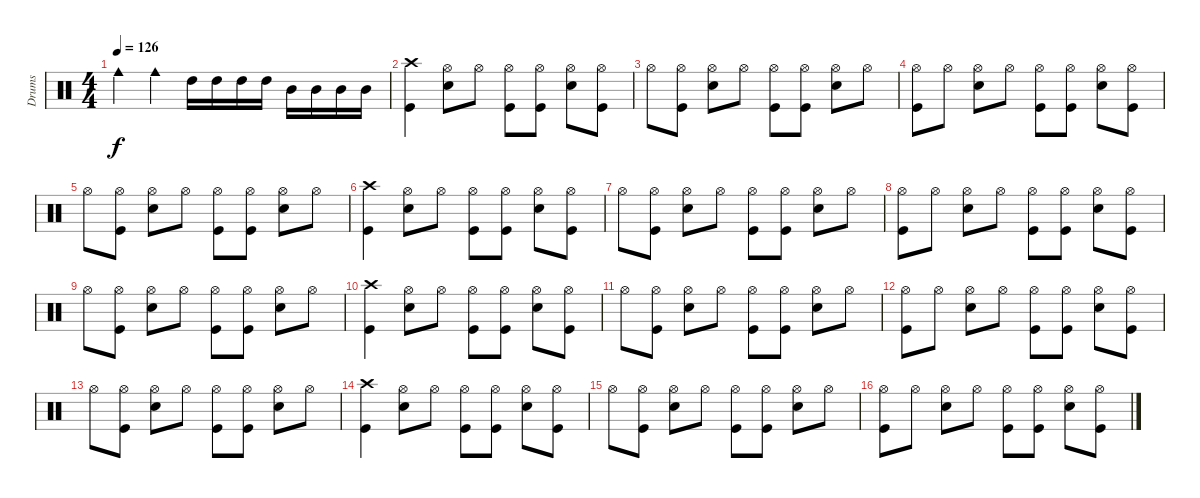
\track ("Drums" "Drums") {instrument percussion}
\staff {score}
\articulation defaults
\ts (4 4)
\tempo 126
\clef neutral
\ks c "Cowbell medium (hit)".4{dy f} "Cowbell medium (hit)".4 "High Tom (hit)".16 "High Tom (hit)".16 "High Tom (hit)".16 "High Tom (hit)".16 "Mid Tom (hit)".16 "Mid Tom (hit)".16 "Mid Tom (hit)".16 "Mid Tom (hit)".16
|
("Crash high (hit)" "Kick (hit)").4 ("Hi-Hat (open)" "Snare (hit) 2").8 "Hi-Hat (open)".8 ("Hi-Hat (open)" "Kick (hit)").8 ("Hi-Hat (open)" "Kick (hit)").8 ("Hi-Hat (open)" "Snare (hit) 2").8 ("Hi-Hat (open)" "Kick (hit)").8 |
"Hi-Hat (open)".8 ("Hi-Hat (open)" "Kick (hit)").8 ("Snare (hit) 2" "Hi-Hat (open)").8 "Hi-Hat (open)".8 ("Hi-Hat (open)" "Kick (hit)").8 ("Hi-Hat (open)" "Kick (hit)").8 ("Hi-Hat (open)" "Snare (hit) 2").8 "Hi-Hat (open)".8 |
("Hi-Hat (open)" "Kick (hit)").8 "Hi-Hat (open)".8 ("Hi-Hat (open)" "Snare (hit) 2").8 "Hi-Hat (open)".8 ("Hi-Hat (open)" "Kick (hit)").8 ("Hi-Hat (open)" "Kick (hit)").8 ("Hi-Hat (open)" "Snare (hit) 2").8 ("Hi-Hat (open)" "Kick (hit)").8 |
"Hi-Hat (open)".8 ("Hi-Hat (open)" "Kick (hit)").8 ("Snare (hit) 2" "Hi-Hat (open)").8 "Hi-Hat (open)".8 ("Hi-Hat (open)" "Kick (hit)").8 ("Hi-Hat (open)" "Kick (hit)").8 ("Hi-Hat (open)" "Snare (hit) 2").8 "Hi-Hat (open)".8 |
("Crash high (hit)" "Kick (hit)").4 ("Hi-Hat (open)" "Snare (hit) 2").8 "Hi-Hat (open)".8 ("Hi-Hat (open)" "Kick (hit)").8 ("Hi-Hat (open)" "Kick (hit)").8 ("Hi-Hat (open)" "Snare (hit) 2").8 ("Hi-Hat (open)" "Kick (hit)").8 |
"Hi-Hat (open)".8 ("Hi-Hat (open)" "Kick (hit)").8 ("Snare (hit) 2" "Hi-Hat (open)").8 "Hi-Hat (open)".8 ("Hi-Hat (open)" "Kick (hit)").8 ("Hi-Hat (open)" "Kick (hit)").8 ("Hi-Hat (open)" "Snare (hit) 2").8 "Hi-Hat (open)".8 |
("Hi-Hat (open)" "Kick (hit)").8 "Hi-Hat (open)".8 ("Hi-Hat (open)" "Snare (hit) 2").8 "Hi-Hat (open)".8 ("Hi-Hat (open)" "Kick (hit)").8 ("Hi-Hat (open)" "Kick (hit)").8 ("Hi-Hat (open)" "Snare (hit) 2").8 ("Hi-Hat (open)" "Kick (hit)").8 |
"Hi-Hat (open)".8 ("Hi-Hat (open)" "Kick (hit)").8 ("Snare (hit) 2" "Hi-Hat (open)").8 "Hi-Hat (open)".8 ("Hi-Hat (open)" "Kick (hit)").8 ("Hi-Hat (open)" "Kick (hit)").8 ("Hi-Hat (open)" "Snare (hit) 2").8 "Hi-Hat (open)".8 |
("Crash high (hit)" "Kick (hit)").4 ("Hi-Hat (open)" "Snare (hit) 2").8 "Hi-Hat (open)".8 ("Hi-Hat (open)" "Kick (hit)").8 ("Hi-Hat (open)" "Kick (hit)").8 ("Hi-Hat (open)" "Snare (hit) 2").8 ("Hi-Hat (open)" "Kick (hit)").8 |
"Hi-Hat (open)".8 ("Hi-Hat (open)" "Kick (hit)").8 ("Snare (hit) 2" "Hi-Hat (open)").8 "Hi-Hat (open)".8 ("Hi-Hat (open)" "Kick (hit)").8 ("Hi-Hat (open)" "Kick (hit)").8 ("Hi-Hat (open)" "Snare (hit) 2").8 "Hi-Hat (open)".8 |
("Hi-Hat (open)" "Kick (hit)").8 "Hi-Hat (open)".8 ("Hi-Hat (open)" "Snare (hit) 2").8 "Hi-Hat (open)".8 ("Hi-Hat (open)" "Kick (hit)").8 ("Hi-Hat (open)" "Kick (hit)").8 ("Hi-Hat (open)" "Snare (hit) 2").8 ("Hi-Hat (open)" "Kick (hit)").8 |
"Hi-Hat (open)".8 ("Hi-Hat (open)" "Kick (hit)").8 ("Snare (hit) 2" "Hi-Hat (open)").8 "Hi-Hat (open)".8 ("Hi-Hat (open)" "Kick (hit)").8 ("Hi-Hat (open)" "Kick (hit)").8 ("Hi-Hat (open)" "Snare (hit) 2").8 "Hi-Hat (open)".8 |
("Crash high (hit)" "Kick (hit)").4 ("Hi-Hat (open)" "Snare (hit) 2").8 "Hi-Hat (open)".8 ("Hi-Hat (open)" "Kick (hit)").8 ("Hi-Hat (open)" "Kick (hit)").8 ("Hi-Hat (open)" "Snare (hit) 2").8 ("Hi-Hat (open)" "Kick (hit)").8 |
"Hi-Hat (open)".8 ("Hi-Hat (open)" "Kick (hit)").8 ("Snare (hit) 2" "Hi-Hat (open)").8 "Hi-Hat (open)".8 ("Hi-Hat (open)" "Kick (hit)").8 ("Hi-Hat (open)" "Kick (hit)").8 ("Hi-Hat (open)" "Snare (hit) 2").8 "Hi-Hat (open)".8 |
("Hi-Hat (open)" "Kick (hit)").8 "Hi-Hat (open)".8 ("Hi-Hat (open)" "Snare (hit) 2").8 "Hi-Hat (open)".8 ("Hi-Hat (open)" "Kick (hit)").8 ("Hi-Hat (open)" "Kick (hit)").8 ("Hi-Hat (open)" "Snare (hit) 2").8 ("Hi-Hat (open)" "Kick (hit)").8
